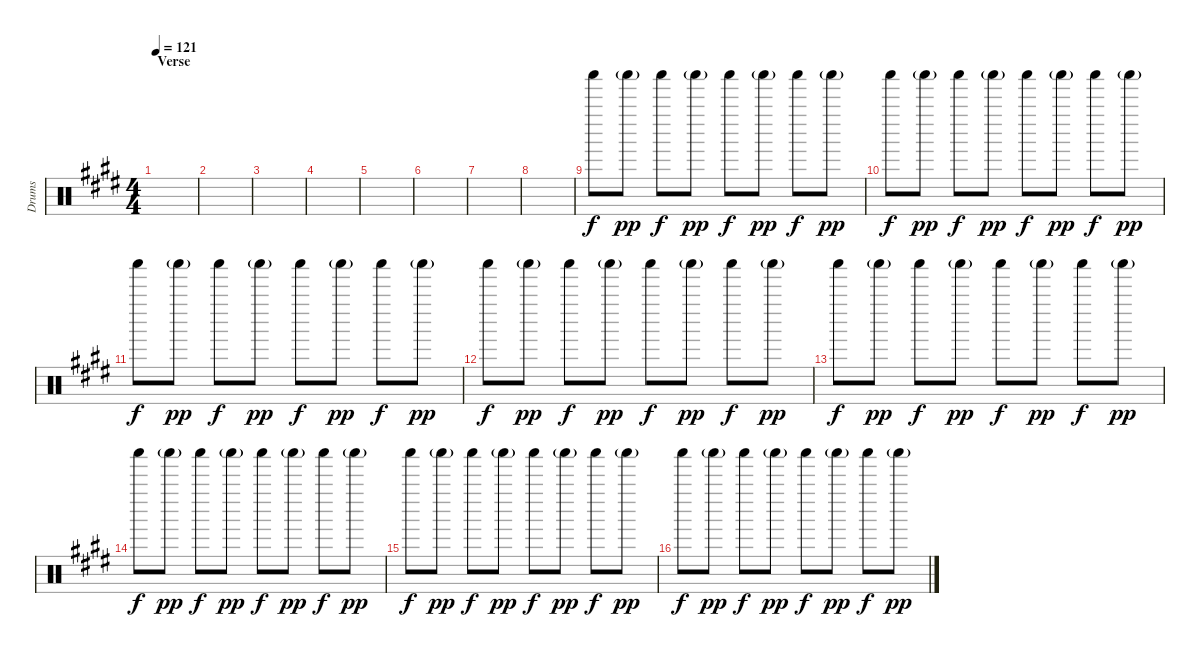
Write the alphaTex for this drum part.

\track ("Drums" "Drums") {instrument percussion}
\staff {score}
\articulation defaults
\ts (4 4)
\section ("" "Verse")
\tempo 121
\clef neutral
\ks e
|
|
|
|
|
|
|
|
"Shaker (hit)".8 "Shaker (hit)"{g}.8{dy pp} "Shaker (hit)".8{dy f} "Shaker (hit)"{g}.8{dy pp} "Shaker (hit)".8{dy f} "Shaker (hit)"{g}.8{dy pp} "Shaker (hit)".8{dy f} "Shaker (hit)"{g}.8{dy pp} |
"Shaker (hit)".8{dy f} "Shaker (hit)"{g}.8{dy pp} "Shaker (hit)".8{dy f} "Shaker (hit)"{g}.8{dy pp} "Shaker (hit)".8{dy f} "Shaker (hit)"{g}.8{dy pp} "Shaker (hit)".8{dy f} "Shaker (hit)"{g}.8{dy pp} |
"Shaker (hit)".8{dy f} "Shaker (hit)"{g}.8{dy pp} "Shaker (hit)".8{dy f} "Shaker (hit)"{g}.8{dy pp} "Shaker (hit)".8{dy f} "Shaker (hit)"{g}.8{dy pp} "Shaker (hit)".8{dy f} "Shaker (hit)"{g}.8{dy pp} |
"Shaker (hit)".8{dy f} "Shaker (hit)"{g}.8{dy pp} "Shaker (hit)".8{dy f} "Shaker (hit)"{g}.8{dy pp} "Shaker (hit)".8{dy f} "Shaker (hit)"{g}.8{dy pp} "Shaker (hit)".8{dy f} "Shaker (hit)"{g}.8{dy pp} |
"Shaker (hit)".8{dy f} "Shaker (hit)"{g}.8{dy pp} "Shaker (hit)".8{dy f} "Shaker (hit)"{g}.8{dy pp} "Shaker (hit)".8{dy f} "Shaker (hit)"{g}.8{dy pp} "Shaker (hit)".8{dy f} "Shaker (hit)"{g}.8{dy pp} |
"Shaker (hit)".8{dy f} "Shaker (hit)"{g}.8{dy pp} "Shaker (hit)".8{dy f} "Shaker (hit)"{g}.8{dy pp} "Shaker (hit)".8{dy f} "Shaker (hit)"{g}.8{dy pp} "Shaker (hit)".8{dy f} "Shaker (hit)"{g}.8{dy pp} |
"Shaker (hit)".8{dy f} "Shaker (hit)"{g}.8{dy pp} "Shaker (hit)".8{dy f} "Shaker (hit)"{g}.8{dy pp} "Shaker (hit)".8{dy f} "Shaker (hit)"{g}.8{dy pp} "Shaker (hit)".8{dy f} "Shaker (hit)"{g}.8{dy pp} |
"Shaker (hit)".8{dy f} "Shaker (hit)"{g}.8{dy pp} "Shaker (hit)".8{dy f} "Shaker (hit)"{g}.8{dy pp} "Shaker (hit)".8{dy f} "Shaker (hit)"{g}.8{dy pp} "Shaker (hit)".8{dy f} "Shaker (hit)"{g}.8{dy pp}
